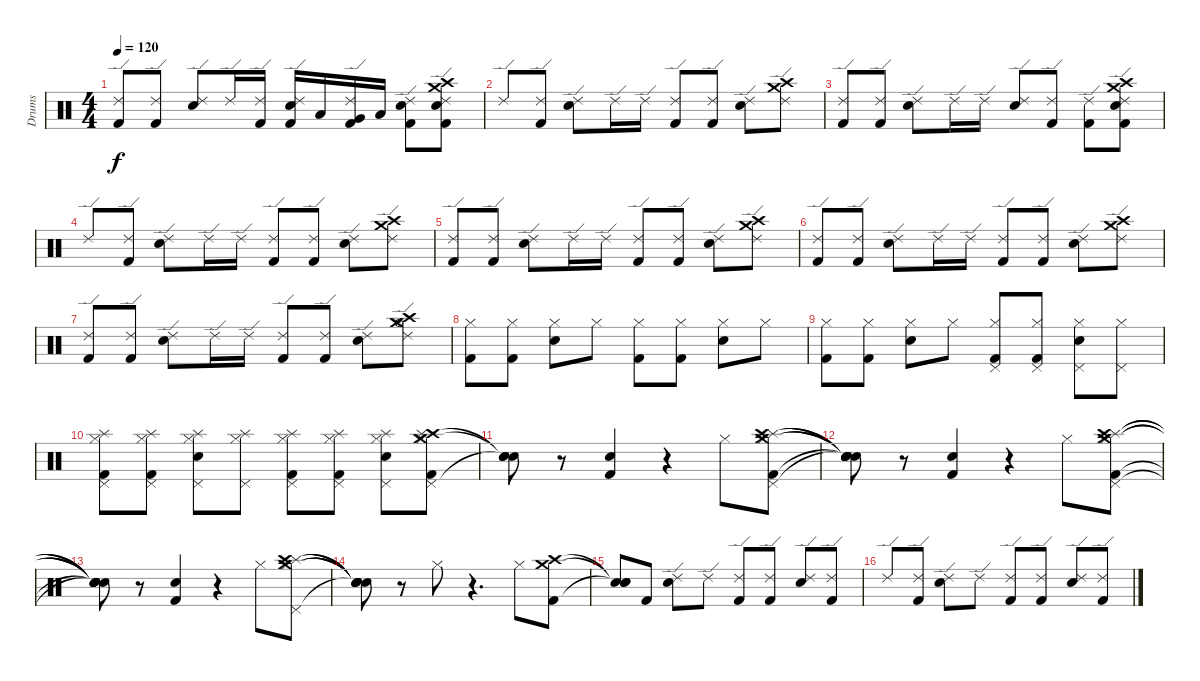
\track ("Drums" "Drums") {instrument percussion}
\staff {score}
\articulation defaults
\ts (4 4)
\tempo 120
\clef neutral
\ks c
("Kick (hit) 2" "Ride (edge) 2").8{dy f} ("Kick (hit) 2" "Ride (edge) 2").8 ("Snare (hit) 2" "Ride (edge) 2").8 "Ride (edge) 2".16 ("Kick (hit) 2" "Ride (edge) 2").16 ("Kick (hit) 2" "Snare (hit) 2" "Ride (edge) 2").16 "Low Floor Tom (hit)".16 ("Kick (hit) 2" "Very Low Tom (hit)" "Ride (edge) 2").16 "Low Tom (hit)".16 ("Snare (hit) 2" "Ride (edge) 2" "Kick (hit) 2").8 ("Kick (hit) 2" "Snare (hit) 2" "Ride (edge) 2" "Crash high (hit)" "Crash medium (hit)").8 |
"Ride (edge) 2".8 ("Kick (hit) 2" "Ride (edge) 2").8 ("Snare (hit) 2" "Ride (edge) 2").8 "Ride (edge) 2".16 "Ride (edge) 2".16 ("Kick (hit) 2" "Ride (edge) 2").8 ("Kick (hit) 2" "Ride (edge) 2").8 ("Snare (hit) 2" "Ride (edge) 2").8 ("Ride (edge) 2" "Crash high (hit)" "Crash medium (hit)").8 |
("Kick (hit) 2" "Ride (edge) 2").8 ("Kick (hit) 2" "Ride (edge) 2").8 ("Snare (hit) 2" "Ride (edge) 2").8 "Ride (edge) 2".16 "Ride (edge) 2".16 ("Ride (edge) 2" "Snare (hit) 2").8 ("Kick (hit) 2" "Ride (edge) 2").8 ("Kick (hit) 2" "Ride (edge) 2").8 ("Snare (hit) 2" "Ride (edge) 2" "Crash high (hit)" "Crash medium (hit)" "Kick (hit) 2").8 |
"Ride (edge) 2".8 ("Kick (hit) 2" "Ride (edge) 2").8 ("Snare (hit) 2" "Ride (edge) 2").8 "Ride (edge) 2".16 "Ride (edge) 2".16 ("Kick (hit) 2" "Ride (edge) 2").8 ("Kick (hit) 2" "Ride (edge) 2").8 ("Snare (hit) 2" "Ride (edge) 2").8 ("Ride (edge) 2" "Crash medium (hit)" "Crash high (hit)").8 |
("Kick (hit) 2" "Ride (edge) 2").8 ("Kick (hit) 2" "Ride (edge) 2").8 ("Snare (hit) 2" "Ride (edge) 2").8 "Ride (edge) 2".16 "Ride (edge) 2".16 ("Kick (hit) 2" "Ride (edge) 2").8 ("Kick (hit) 2" "Ride (edge) 2").8 ("Snare (hit) 2" "Ride (edge) 2").8 ("Ride (edge) 2" "Crash high (hit)" "Crash medium (hit)").8 |
("Kick (hit) 2" "Ride (edge) 2").8 ("Kick (hit) 2" "Ride (edge) 2").8 ("Snare (hit) 2" "Ride (edge) 2").8 "Ride (edge) 2".16 "Ride (edge) 2".16 ("Kick (hit) 2" "Ride (edge) 2").8 ("Kick (hit) 2" "Ride (edge) 2").8 ("Snare (hit) 2" "Ride (edge) 2").8 ("Ride (edge) 2" "Crash high (hit)" "Crash medium (hit)").8 |
("Kick (hit) 2" "Ride (edge) 2").8 ("Kick (hit) 2" "Ride (edge) 2").8 ("Snare (hit) 2" "Ride (edge) 2").8 "Ride (edge) 2".16 "Ride (edge) 2".16 ("Kick (hit) 2" "Ride (edge) 2").8 ("Kick (hit) 2" "Ride (edge) 2").8 ("Snare (hit) 2" "Ride (edge) 2").8 ("Ride (edge) 2" "Hi-Hat (open)" "Crash high (hit)" "Crash medium (hit)").8 |
("Hi-Hat (closed)" "Kick (hit) 2").8 ("Hi-Hat (closed)" "Kick (hit) 2").8 ("Hi-Hat (closed)" "Snare (hit) 2").8 "Hi-Hat (closed)".8 ("Hi-Hat (closed)" "Kick (hit) 2").8 ("Hi-Hat (closed)" "Kick (hit) 2").8 ("Hi-Hat (closed)" "Snare (hit) 2").8 "Hi-Hat (closed)".8 |
("Hi-Hat (closed)" "Kick (hit) 2").8 ("Hi-Hat (closed)" "Kick (hit) 2").8 ("Hi-Hat (closed)" "Snare (hit) 2").8 "Hi-Hat (closed)".8 ("Hi-Hat (closed)" "Kick (hit) 2" "Pedal Hi-Hat (hit)").8 ("Pedal Hi-Hat (hit)" "Hi-Hat (closed)" "Kick (hit) 2").8 ("Pedal Hi-Hat (hit)" "Hi-Hat (closed)" "Snare (hit) 2").8 ("Pedal Hi-Hat (hit)" "Hi-Hat (closed)").8 |
("Pedal Hi-Hat (hit)" "Hi-Hat (closed)" "Kick (hit) 2" "Splash (hit)").8 ("Splash (hit)" "Pedal Hi-Hat (hit)" "Hi-Hat (closed)" "Kick (hit) 2").8 ("Splash (hit)" "Pedal Hi-Hat (hit)" "Hi-Hat (closed)" "Snare (hit) 2").8 ("Splash (hit)" "Pedal Hi-Hat (hit)" "Hi-Hat (closed)").8 ("Splash (hit)" "Pedal Hi-Hat (hit)" "Hi-Hat (closed)" "Kick (hit) 2").8 ("Splash (hit)" "Pedal Hi-Hat (hit)" "Hi-Hat (closed)" "Kick (hit) 2").8 ("Splash (hit)" "Pedal Hi-Hat (hit)" "Hi-Hat (closed)" "Snare (hit) 2").8 ("Crash high (hit)" "Crash medium (hit)" "Pedal Hi-Hat (hit)" "Hi-Hat (closed)" "Kick (hit) 2" "Splash (hit)").8 |
("Snare (hit)"{t} "Snare (hit)"{t} "Snare (hit)"{t}).8 r.8 ("Kick (hit) 2" "Snare (hit) 2").4 r.4 "Hi-Hat (closed)".8 ("Hi-Hat (closed)" "Pedal Hi-Hat (hit)" "Splash (hit)" "Crash medium (hit)" "Kick (hit) 2" "Crash high (hit)").8 |
("Snare (hit)"{t} "Snare (hit)"{t} "Snare (hit)"{t} "Snare (hit)"{t} "Snare (hit)"{t} "Snare (hit)"{t}).8 r.8 ("Kick (hit) 2" "Snare (hit) 2").4 r.4 "Hi-Hat (closed)".8 ("Crash medium (hit)" "Splash (hit)" "Crash high (hit)" "Pedal Hi-Hat (hit)" "Hi-Hat (closed)" "Kick (hit) 2").8 |
("Snare (hit)"{t} "Snare (hit)"{t} "Snare (hit)"{t} "Snare (hit)"{t} "Snare (hit)"{t} "Snare (hit)"{t}).8 r.8 ("Kick (hit) 2" "Snare (hit) 2").4 r.4 "Hi-Hat (closed)".8 ("Crash medium (hit)" "Splash (hit)" "Crash high (hit)" "Hi-Hat (closed)" "Pedal Hi-Hat (hit)").8 |
("Snare (hit)"{t} "Snare (hit)"{t} "Snare (hit)"{t} "Snare (hit)"{t} "Snare (hit)"{t}).8 r.8 "Hi-Hat (closed)".8 r.4{d} "Hi-Hat (closed)".8 ("Crash high (hit)" "Crash medium (hit)" "Kick (hit) 2").8 |
("Snare (hit)"{t} "Snare (hit)"{t} "Snare (hit)"{t}).8 "Kick (hit) 2".8 ("Ride (edge) 2" "Snare (hit) 2").8 "Ride (edge) 2".8 ("Ride (edge) 2" "Kick (hit) 2").8 ("Kick (hit) 2" "Ride (edge) 2").8 ("Ride (edge) 2" "Snare (hit) 2").8 ("Ride (edge) 2" "Kick (hit) 2").8 |
"Ride (edge) 2".8 ("Kick (hit) 2" "Ride (edge) 2").8 ("Ride (edge) 2" "Snare (hit) 2").8 "Ride (edge) 2".8 ("Ride (edge) 2" "Kick (hit) 2").8 ("Kick (hit) 2" "Ride (edge) 2").8 ("Ride (edge) 2" "Snare (hit) 2").8 ("Ride (edge) 2" "Kick (hit) 2").8
